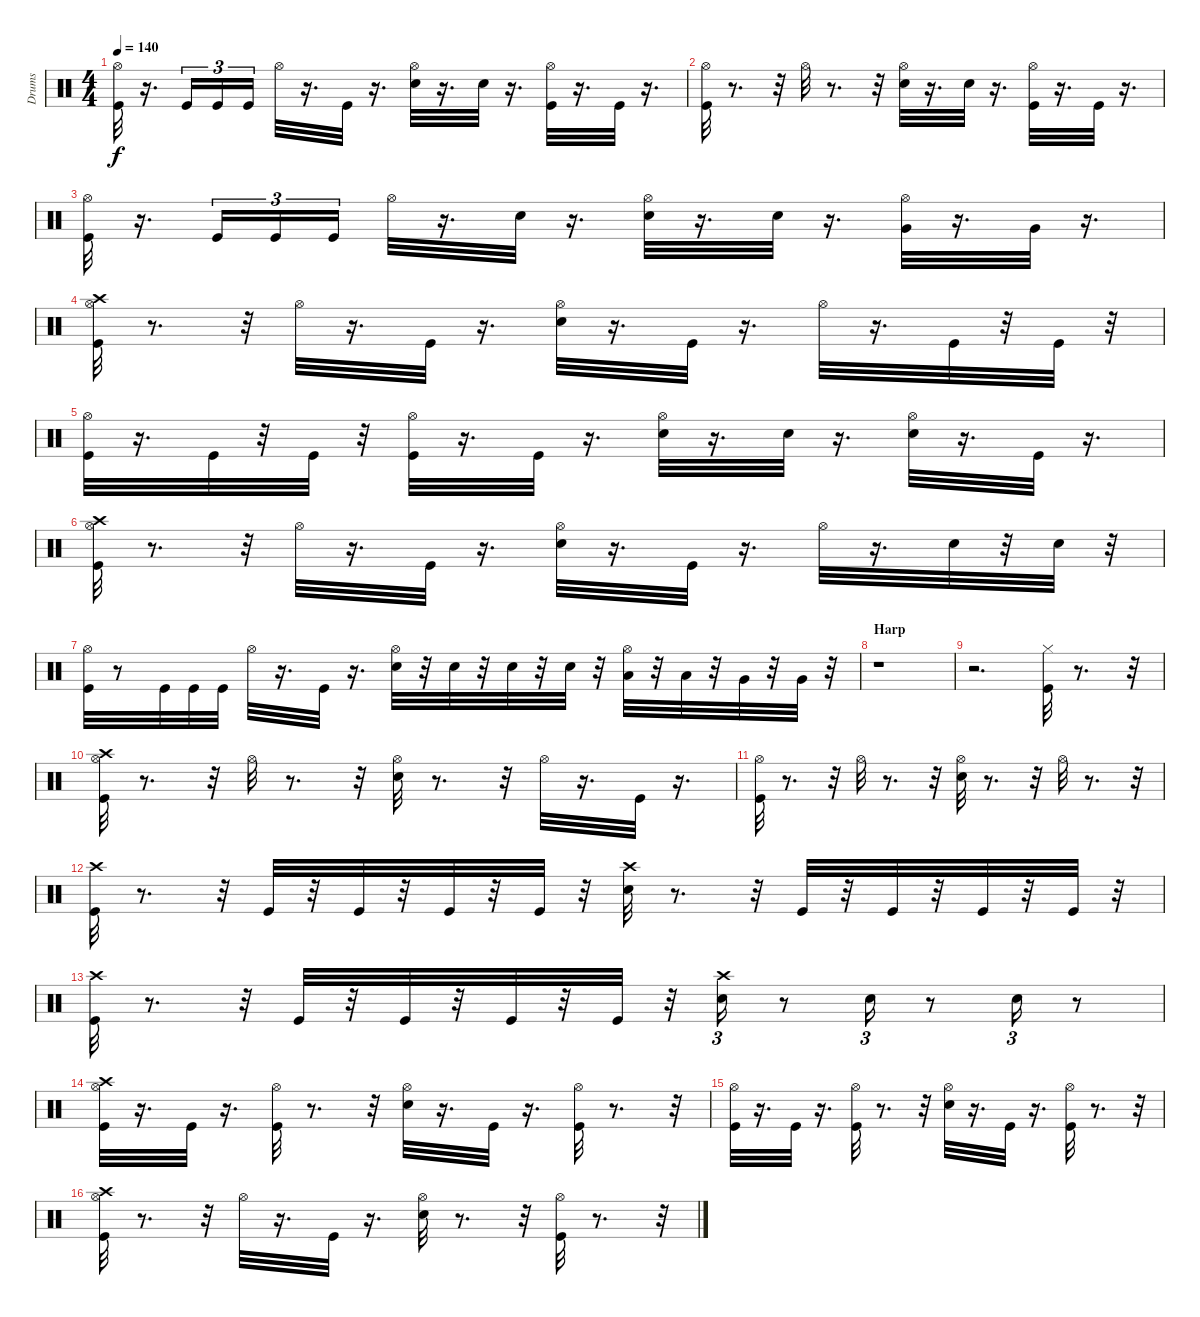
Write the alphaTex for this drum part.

\track ("Drums" "Drums") {instrument percussion}
\staff {score}
\articulation defaults
\ts (4 4)
\tempo 140
\clef neutral
\ks c
("Hi-Hat (open)" "Kick (hit)").32{dy f} r.16{d} "Kick (hit)".16{tu (3 2)} "Kick (hit)".16{tu (3 2)} "Kick (hit)".16{tu (3 2)} "Hi-Hat (open)".32 r.16{d} "Kick (hit)".32 r.16{d} ("Hi-Hat (open)" "Electric Snare (hit)").32 r.16{d} "Electric Snare (hit)".32 r.16{d} ("Hi-Hat (open)" "Kick (hit)").32 r.16{d} "Kick (hit)".32 r.16{d} |
("Hi-Hat (open)" "Kick (hit)").32 r.8{d} r.32 "Hi-Hat (open)".32 r.8{d} r.32 ("Hi-Hat (open)" "Electric Snare (hit)").32 r.16{d} "Electric Snare (hit)".32 r.16{d} ("Hi-Hat (open)" "Kick (hit)").32 r.16{d} "Kick (hit)".32 r.16{d} |
("Hi-Hat (open)" "Kick (hit)").32 r.16{d} "Kick (hit)".16{tu (3 2)} "Kick (hit)".16{tu (3 2)} "Kick (hit)".16{tu (3 2)} "Hi-Hat (open)".32 r.16{d} "Electric Snare (hit)".32 r.16{d} ("Hi-Hat (open)" "Electric Snare (hit)").32 r.16{d} "Electric Snare (hit)".32 r.16{d} ("Hi-Hat (open)" "Very Low Tom (hit)").32 r.16{d} "Very Low Tom (hit)".32 r.16{d} |
("Hi-Hat (open)" "Crash high (hit)" "Kick (hit)").32 r.8{d} r.32 "Hi-Hat (open)".32 r.16{d} "Kick (hit)".32 r.16{d} ("Hi-Hat (open)" "Electric Snare (hit)").32 r.16{d} "Kick (hit)".32 r.16{d} "Hi-Hat (open)".32 r.16{d} "Kick (hit)".32 r.32 "Kick (hit)".32 r.32 |
("Hi-Hat (open)" "Kick (hit)").32 r.16{d} "Kick (hit)".32 r.32 "Kick (hit)".32 r.32 ("Hi-Hat (open)" "Kick (hit)").32 r.16{d} "Kick (hit)".32 r.16{d} ("Hi-Hat (open)" "Electric Snare (hit)").32 r.16{d} "Electric Snare (hit)".32 r.16{d} ("Hi-Hat (open)" "Electric Snare (hit)").32 r.16{d} "Kick (hit)".32 r.16{d} |
("Hi-Hat (open)" "Crash high (hit)" "Kick (hit)").32 r.8{d} r.32 "Hi-Hat (open)".32 r.16{d} "Kick (hit)".32 r.16{d} ("Hi-Hat (open)" "Electric Snare (hit)").32 r.16{d} "Kick (hit)".32 r.16{d} "Hi-Hat (open)".32 r.16{d} "Electric Snare (hit)".32 r.32 "Electric Snare (hit)".32 r.32 |
("Hi-Hat (open)" "Kick (hit)").32 r.8 "Kick (hit)".32 "Kick (hit)".32 "Kick (hit)".32 "Hi-Hat (open)".32 r.16{d} "Kick (hit)".32 r.16{d} ("Hi-Hat (open)" "Electric Snare (hit)").32 r.32 "Electric Snare (hit)".32 r.32 "Electric Snare (hit)".32 r.32 "Electric Snare (hit)".32 r.32 ("Hi-Hat (open)" "Low Tom (hit)").32 r.32 "Low Tom (hit)".32 r.32 "Very Low Tom (hit)".32 r.32 "Very Low Tom (hit)".32 r.32 |
\section ("" "Harp")
r.1 |
r.2{d} ("Hi-Hat (closed)" "Kick (hit)").32 r.8{d} r.32 |
("Hi-Hat (open)" "Crash high (hit)" "Kick (hit)").32 r.8{d} r.32 "Hi-Hat (open)".32 r.8{d} r.32 ("Electric Snare (hit)" "Hi-Hat (open)").32 r.8{d} r.32 "Hi-Hat (open)".32 r.16{d} "Kick (hit)".32 r.16{d} |
("Hi-Hat (open)" "Kick (hit)").32 r.8{d} r.32 "Hi-Hat (open)".32 r.8{d} r.32 ("Electric Snare (hit)" "Hi-Hat (open)").32 r.8{d} r.32 "Hi-Hat (open)".32 r.8{d} r.32 |
("Crash high (hit)" "Kick (hit)").32 r.8{d} r.32 "Kick (hit)".32 r.32 "Kick (hit)".32 r.32 "Kick (hit)".32 r.32 "Kick (hit)".32 r.32 ("Crash high (hit)" "Electric Snare (hit)").32 r.8{d} r.32 "Kick (hit)".32 r.32 "Kick (hit)".32 r.32 "Kick (hit)".32 r.32 "Kick (hit)".32 r.32 |
("Crash high (hit)" "Kick (hit)").32 r.8{d} r.32 "Kick (hit)".32 r.32 "Kick (hit)".32 r.32 "Kick (hit)".32 r.32 "Kick (hit)".32 r.32 ("Crash high (hit)" "Electric Snare (hit)").16{tu (3 2)} r.8 "Electric Snare (hit)".16{tu (3 2)} r.8 "Electric Snare (hit)".16{tu (3 2)} r.8 |
("Hi-Hat (open)" "Crash high (hit)" "Kick (hit)").32 r.16{d} "Kick (hit)".32 r.16{d} ("Hi-Hat (open)" "Kick (hit)").32 r.8{d} r.32 ("Hi-Hat (open)" "Electric Snare (hit)").32 r.16{d} "Kick (hit)".32 r.16{d} ("Kick (hit)" "Hi-Hat (open)").32 r.8{d} r.32 |
("Hi-Hat (open)" "Kick (hit)").32 r.16{d} "Kick (hit)".32 r.16{d} ("Kick (hit)" "Hi-Hat (open)").32 r.8{d} r.32 ("Electric Snare (hit)" "Hi-Hat (open)").32 r.16{d} "Kick (hit)".32 r.16{d} ("Kick (hit)" "Hi-Hat (open)").32 r.8{d} r.32 |
("Hi-Hat (open)" "Crash high (hit)" "Kick (hit)").32 r.8{d} r.32 "Hi-Hat (open)".32 r.16{d} "Kick (hit)".32 r.16{d} ("Electric Snare (hit)" "Hi-Hat (open)").32 r.8{d} r.32 ("Kick (hit)" "Hi-Hat (open)").32 r.8{d} r.32
